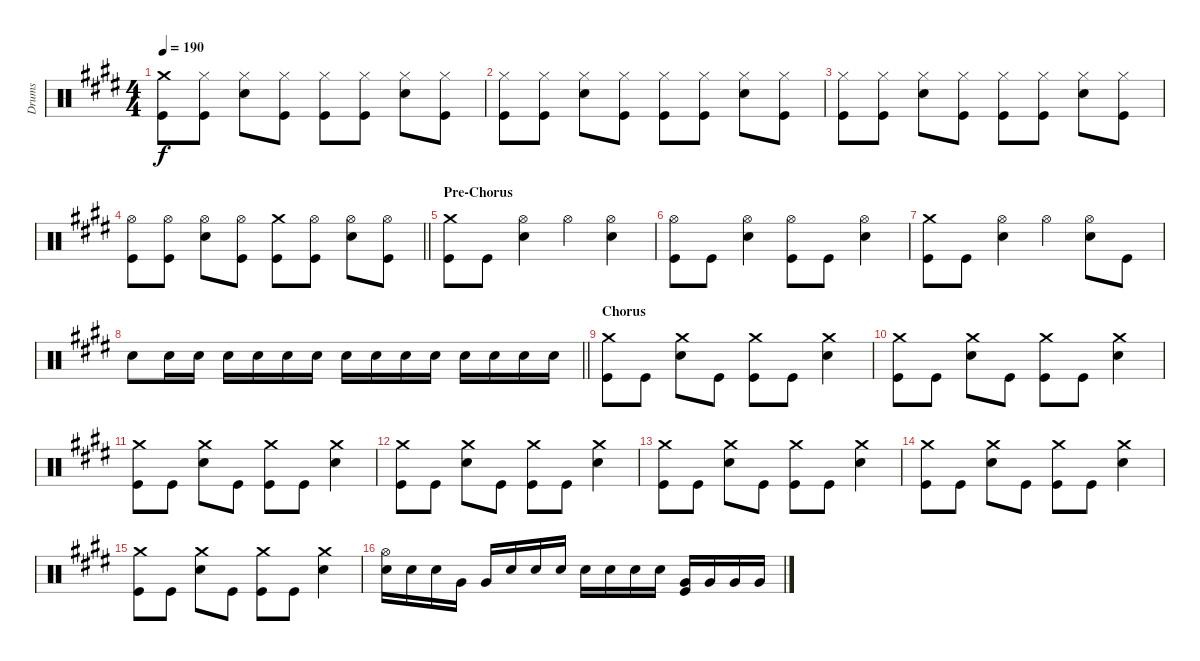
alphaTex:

\track ("Drums" "Drums") {instrument percussion}
\staff {score}
\articulation defaults
\ts (4 4)
\tempo 190
\clef neutral
\ks e
("Kick (hit)" "Crash medium (hit)").8{dy f} ("Kick (hit)" "Hi-Hat (closed)").8 ("Snare (hit) 2" "Hi-Hat (closed)").8 ("Kick (hit)" "Hi-Hat (closed)").8 ("Kick (hit)" "Hi-Hat (closed)").8 ("Kick (hit)" "Hi-Hat (closed)").8 ("Snare (hit) 2" "Hi-Hat (closed)").8 ("Kick (hit)" "Hi-Hat (closed)").8 |
("Kick (hit)" "Hi-Hat (closed)").8 ("Kick (hit)" "Hi-Hat (closed)").8 ("Snare (hit) 2" "Hi-Hat (closed)").8 ("Kick (hit)" "Hi-Hat (closed)").8 ("Kick (hit)" "Hi-Hat (closed)").8 ("Kick (hit)" "Hi-Hat (closed)").8 ("Snare (hit) 2" "Hi-Hat (closed)").8 ("Kick (hit)" "Hi-Hat (closed)").8 |
("Kick (hit)" "Hi-Hat (closed)").8 ("Kick (hit)" "Hi-Hat (closed)").8 ("Snare (hit) 2" "Hi-Hat (closed)").8 ("Kick (hit)" "Hi-Hat (closed)").8 ("Kick (hit)" "Hi-Hat (closed)").8 ("Kick (hit)" "Hi-Hat (closed)").8 ("Snare (hit) 2" "Hi-Hat (closed)").8 ("Kick (hit)" "Hi-Hat (closed)").8 |
\barLineRight lightlight
("Kick (hit)" "Hi-Hat (open)").8 ("Kick (hit)" "Hi-Hat (open)").8 ("Snare (hit) 2" "Hi-Hat (open)").8 ("Kick (hit)" "Hi-Hat (open)").8 ("Kick (hit)" "Crash medium (hit)").8 ("Kick (hit)" "Hi-Hat (open)").8 ("Snare (hit) 2" "Hi-Hat (open)").8 ("Kick (hit)" "Hi-Hat (open)").8 |
\section ("" "Pre-Chorus")
("Kick (hit)" "Crash medium (hit)").8 "Kick (hit)".8 ("Snare (hit) 2" "Hi-Hat (open)").4 "Hi-Hat (open)".4 ("Snare (hit) 2" "Hi-Hat (open)").4 |
("Kick (hit)" "Hi-Hat (open)").8 "Kick (hit)".8 ("Snare (hit) 2" "Hi-Hat (open)").4 ("Kick (hit)" "Hi-Hat (open)").8 "Kick (hit)".8 ("Snare (hit) 2" "Hi-Hat (open)").4 |
("Kick (hit)" "Crash medium (hit)").8 "Kick (hit)".8 ("Snare (hit) 2" "Hi-Hat (open)").4 "Hi-Hat (open)".4 ("Snare (hit) 2" "Hi-Hat (open)").8 "Kick (hit)".8 |
\barLineRight lightlight "Snare (hit) 2".8 "Snare (hit) 2".16 "Snare (hit) 2".16 "Snare (hit) 2".16 "Snare (hit) 2".16 "Snare (hit) 2".16 "Snare (hit) 2".16 "Snare (hit) 2".16 "Snare (hit) 2".16 "Snare (hit) 2".16 "Snare (hit) 2".16 "Snare (hit) 2".16 "Snare (hit) 2".16 "Snare (hit) 2".16 "Snare (hit) 2".16
|
\section ("" "Chorus")
("Kick (hit)" "Crash medium (hit)").8 "Kick (hit)".8 ("Snare (hit) 2" "Crash medium (hit)").8 "Kick (hit)".8 ("Kick (hit)" "Crash medium (hit)").8 "Kick (hit)".8 ("Snare (hit) 2" "Crash medium (hit)").4 |
("Kick (hit)" "Crash medium (hit)").8 "Kick (hit)".8 ("Snare (hit) 2" "Crash medium (hit)").8 "Kick (hit)".8 ("Kick (hit)" "Crash medium (hit)").8 "Kick (hit)".8 ("Snare (hit) 2" "Crash medium (hit)").4 |
("Kick (hit)" "Crash medium (hit)").8 "Kick (hit)".8 ("Snare (hit) 2" "Crash medium (hit)").8 "Kick (hit)".8 ("Kick (hit)" "Crash medium (hit)").8 "Kick (hit)".8 ("Snare (hit) 2" "Crash medium (hit)").4 |
("Kick (hit)" "Crash medium (hit)").8 "Kick (hit)".8 ("Snare (hit) 2" "Crash medium (hit)").8 "Kick (hit)".8 ("Kick (hit)" "Crash medium (hit)").8 "Kick (hit)".8 ("Snare (hit) 2" "Crash medium (hit)").4 |
("Kick (hit)" "Crash medium (hit)").8 "Kick (hit)".8 ("Snare (hit) 2" "Crash medium (hit)").8 "Kick (hit)".8 ("Kick (hit)" "Crash medium (hit)").8 "Kick (hit)".8 ("Snare (hit) 2" "Crash medium (hit)").4 |
("Kick (hit)" "Crash medium (hit)").8 "Kick (hit)".8 ("Snare (hit) 2" "Crash medium (hit)").8 "Kick (hit)".8 ("Kick (hit)" "Crash medium (hit)").8 "Kick (hit)".8 ("Snare (hit) 2" "Crash medium (hit)").4 |
("Kick (hit)" "Crash medium (hit)").8 "Kick (hit)".8 ("Snare (hit) 2" "Crash medium (hit)").8 "Kick (hit)".8 ("Kick (hit)" "Crash medium (hit)").8 "Kick (hit)".8 ("Snare (hit) 2" "Crash medium (hit)").4 |
("Snare (hit) 2" "Hi-Hat (open)").16 "Snare (hit) 2".16 "Snare (hit) 2".16 "Very Low Tom (hit)".16 "Very Low Tom (hit)".16 "Snare (hit) 2".16 "Snare (hit) 2".16 "Snare (hit) 2".16 "Snare (hit) 2".16 "Snare (hit) 2".16 "Snare (hit) 2".16 "Snare (hit) 2".16 ("Very Low Tom (hit)" "Kick (hit)").16 "Very Low Tom (hit)".16 "Very Low Tom (hit)".16 "Very Low Tom (hit)".16
